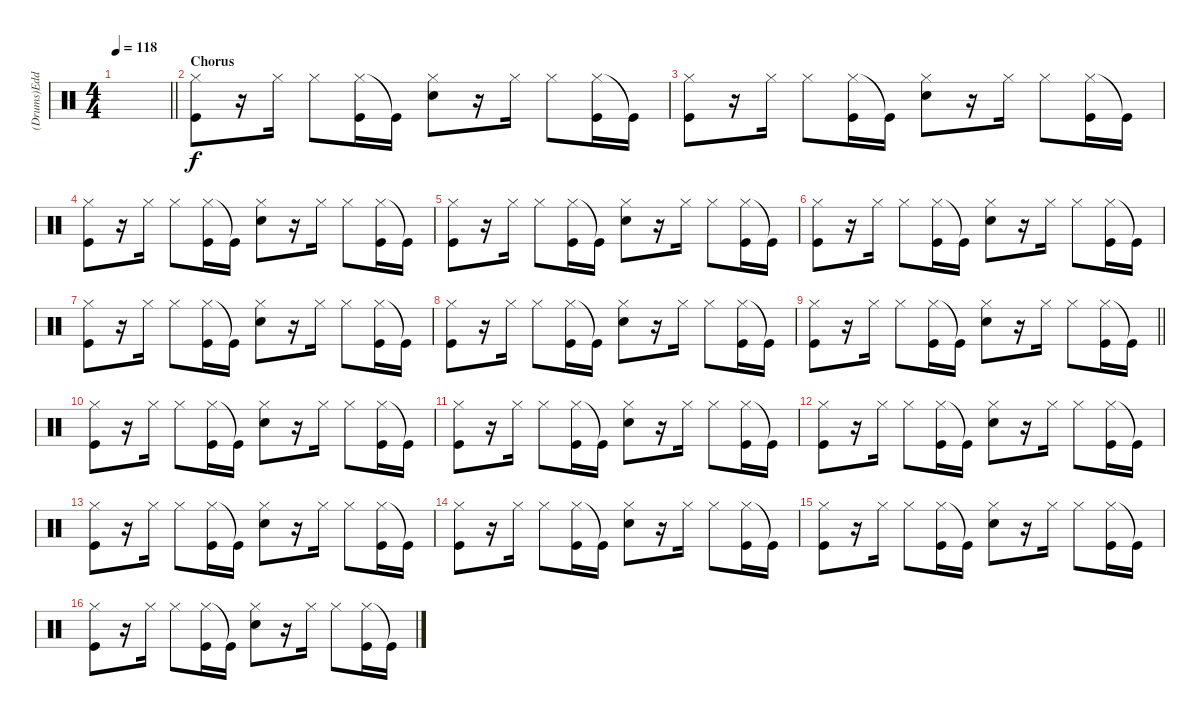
\track ("(Drums)Eddie Fisher" "(Drums)Edd") {instrument percussion}
\staff {score}
\articulation defaults
\ts (4 4)
\tempo 118
\clef neutral
\barLineRight lightlight
\ks c
|
\section ("" "Chorus")
("Hi-Hat (closed)" "Kick (hit)").8 r.16 "Hi-Hat (closed)".16 "Hi-Hat (closed)".8 ("Hi-Hat (closed)" "Kick (hit)").16 "Kick (hit)"{t}.16 ("Hi-Hat (closed)" "Hand Clap (hit)").8 r.16 "Hi-Hat (closed)".16 "Hi-Hat (closed)".8 ("Hi-Hat (closed)" "Kick (hit)").16 "Kick (hit)"{t}.16 |
("Kick (hit)" "Hi-Hat (closed)").8 r.16 "Hi-Hat (closed)".16 "Hi-Hat (closed)".8 ("Hi-Hat (closed)" "Kick (hit)").16 "Kick (hit)"{t}.16 ("Hi-Hat (closed)" "Hand Clap (hit)").8 r.16 "Hi-Hat (closed)".16 "Hi-Hat (closed)".8 ("Hi-Hat (closed)" "Kick (hit)").16 "Kick (hit)"{t}.16 |
("Hi-Hat (closed)" "Kick (hit)").8 r.16 "Hi-Hat (closed)".16 "Hi-Hat (closed)".8 ("Hi-Hat (closed)" "Kick (hit)").16 "Kick (hit)"{t}.16 ("Hi-Hat (closed)" "Hand Clap (hit)").8 r.16 "Hi-Hat (closed)".16 "Hi-Hat (closed)".8 ("Hi-Hat (closed)" "Kick (hit)").16 "Kick (hit)"{t}.16 |
("Kick (hit)" "Hi-Hat (closed)").8 r.16 "Hi-Hat (closed)".16 "Hi-Hat (closed)".8 ("Hi-Hat (closed)" "Kick (hit)").16 "Kick (hit)"{t}.16 ("Hi-Hat (closed)" "Hand Clap (hit)").8 r.16 "Hi-Hat (closed)".16 "Hi-Hat (closed)".8 ("Hi-Hat (closed)" "Kick (hit)").16 "Kick (hit)"{t}.16 |
("Hi-Hat (closed)" "Kick (hit)").8 r.16 "Hi-Hat (closed)".16 "Hi-Hat (closed)".8 ("Hi-Hat (closed)" "Kick (hit)").16 "Kick (hit)"{t}.16 ("Hi-Hat (closed)" "Hand Clap (hit)").8 r.16 "Hi-Hat (closed)".16 "Hi-Hat (closed)".8 ("Hi-Hat (closed)" "Kick (hit)").16 "Kick (hit)"{t}.16 |
("Kick (hit)" "Hi-Hat (closed)").8 r.16 "Hi-Hat (closed)".16 "Hi-Hat (closed)".8 ("Hi-Hat (closed)" "Kick (hit)").16 "Kick (hit)"{t}.16 ("Hi-Hat (closed)" "Hand Clap (hit)").8 r.16 "Hi-Hat (closed)".16 "Hi-Hat (closed)".8 ("Hi-Hat (closed)" "Kick (hit)").16 "Kick (hit)"{t}.16 |
("Hi-Hat (closed)" "Kick (hit)").8 r.16 "Hi-Hat (closed)".16 "Hi-Hat (closed)".8 ("Hi-Hat (closed)" "Kick (hit)").16 "Kick (hit)"{t}.16 ("Hi-Hat (closed)" "Hand Clap (hit)").8 r.16 "Hi-Hat (closed)".16 "Hi-Hat (closed)".8 ("Hi-Hat (closed)" "Kick (hit)").16 "Kick (hit)"{t}.16 |
\barLineRight lightlight
("Kick (hit)" "Hi-Hat (closed)").8 r.16 "Hi-Hat (closed)".16 "Hi-Hat (closed)".8 ("Hi-Hat (closed)" "Kick (hit)").16 "Kick (hit)"{t}.16 ("Hi-Hat (closed)" "Hand Clap (hit)").8 r.16 "Hi-Hat (closed)".16 "Hi-Hat (closed)".8 ("Hi-Hat (closed)" "Kick (hit)").16 "Kick (hit)"{t}.16 |
("Hi-Hat (closed)" "Kick (hit)").8 r.16 "Hi-Hat (closed)".16 "Hi-Hat (closed)".8 ("Hi-Hat (closed)" "Kick (hit)").16 "Kick (hit)"{t}.16 ("Hi-Hat (closed)" "Hand Clap (hit)").8 r.16 "Hi-Hat (closed)".16 "Hi-Hat (closed)".8 ("Hi-Hat (closed)" "Kick (hit)").16 "Kick (hit)"{t}.16 |
("Kick (hit)" "Hi-Hat (closed)").8 r.16 "Hi-Hat (closed)".16 "Hi-Hat (closed)".8 ("Hi-Hat (closed)" "Kick (hit)").16 "Kick (hit)"{t}.16 ("Hi-Hat (closed)" "Hand Clap (hit)").8 r.16 "Hi-Hat (closed)".16 "Hi-Hat (closed)".8 ("Hi-Hat (closed)" "Kick (hit)").16 "Kick (hit)"{t}.16 |
("Hi-Hat (closed)" "Kick (hit)").8 r.16 "Hi-Hat (closed)".16 "Hi-Hat (closed)".8 ("Hi-Hat (closed)" "Kick (hit)").16 "Kick (hit)"{t}.16 ("Hi-Hat (closed)" "Hand Clap (hit)").8 r.16 "Hi-Hat (closed)".16 "Hi-Hat (closed)".8 ("Hi-Hat (closed)" "Kick (hit)").16 "Kick (hit)"{t}.16 |
("Kick (hit)" "Hi-Hat (closed)").8 r.16 "Hi-Hat (closed)".16 "Hi-Hat (closed)".8 ("Hi-Hat (closed)" "Kick (hit)").16 "Kick (hit)"{t}.16 ("Hi-Hat (closed)" "Hand Clap (hit)").8 r.16 "Hi-Hat (closed)".16 "Hi-Hat (closed)".8 ("Hi-Hat (closed)" "Kick (hit)").16 "Kick (hit)"{t}.16 |
("Hi-Hat (closed)" "Kick (hit)").8 r.16 "Hi-Hat (closed)".16 "Hi-Hat (closed)".8 ("Hi-Hat (closed)" "Kick (hit)").16 "Kick (hit)"{t}.16 ("Hi-Hat (closed)" "Hand Clap (hit)").8 r.16 "Hi-Hat (closed)".16 "Hi-Hat (closed)".8 ("Hi-Hat (closed)" "Kick (hit)").16 "Kick (hit)"{t}.16 |
("Kick (hit)" "Hi-Hat (closed)").8 r.16 "Hi-Hat (closed)".16 "Hi-Hat (closed)".8 ("Hi-Hat (closed)" "Kick (hit)").16 "Kick (hit)"{t}.16 ("Hi-Hat (closed)" "Hand Clap (hit)").8 r.16 "Hi-Hat (closed)".16 "Hi-Hat (closed)".8 ("Hi-Hat (closed)" "Kick (hit)").16 "Kick (hit)"{t}.16 |
("Hi-Hat (closed)" "Kick (hit)").8 r.16 "Hi-Hat (closed)".16 "Hi-Hat (closed)".8 ("Hi-Hat (closed)" "Kick (hit)").16 "Kick (hit)"{t}.16 ("Hi-Hat (closed)" "Hand Clap (hit)").8 r.16 "Hi-Hat (closed)".16 "Hi-Hat (closed)".8 ("Hi-Hat (closed)" "Kick (hit)").16 "Kick (hit)"{t}.16
